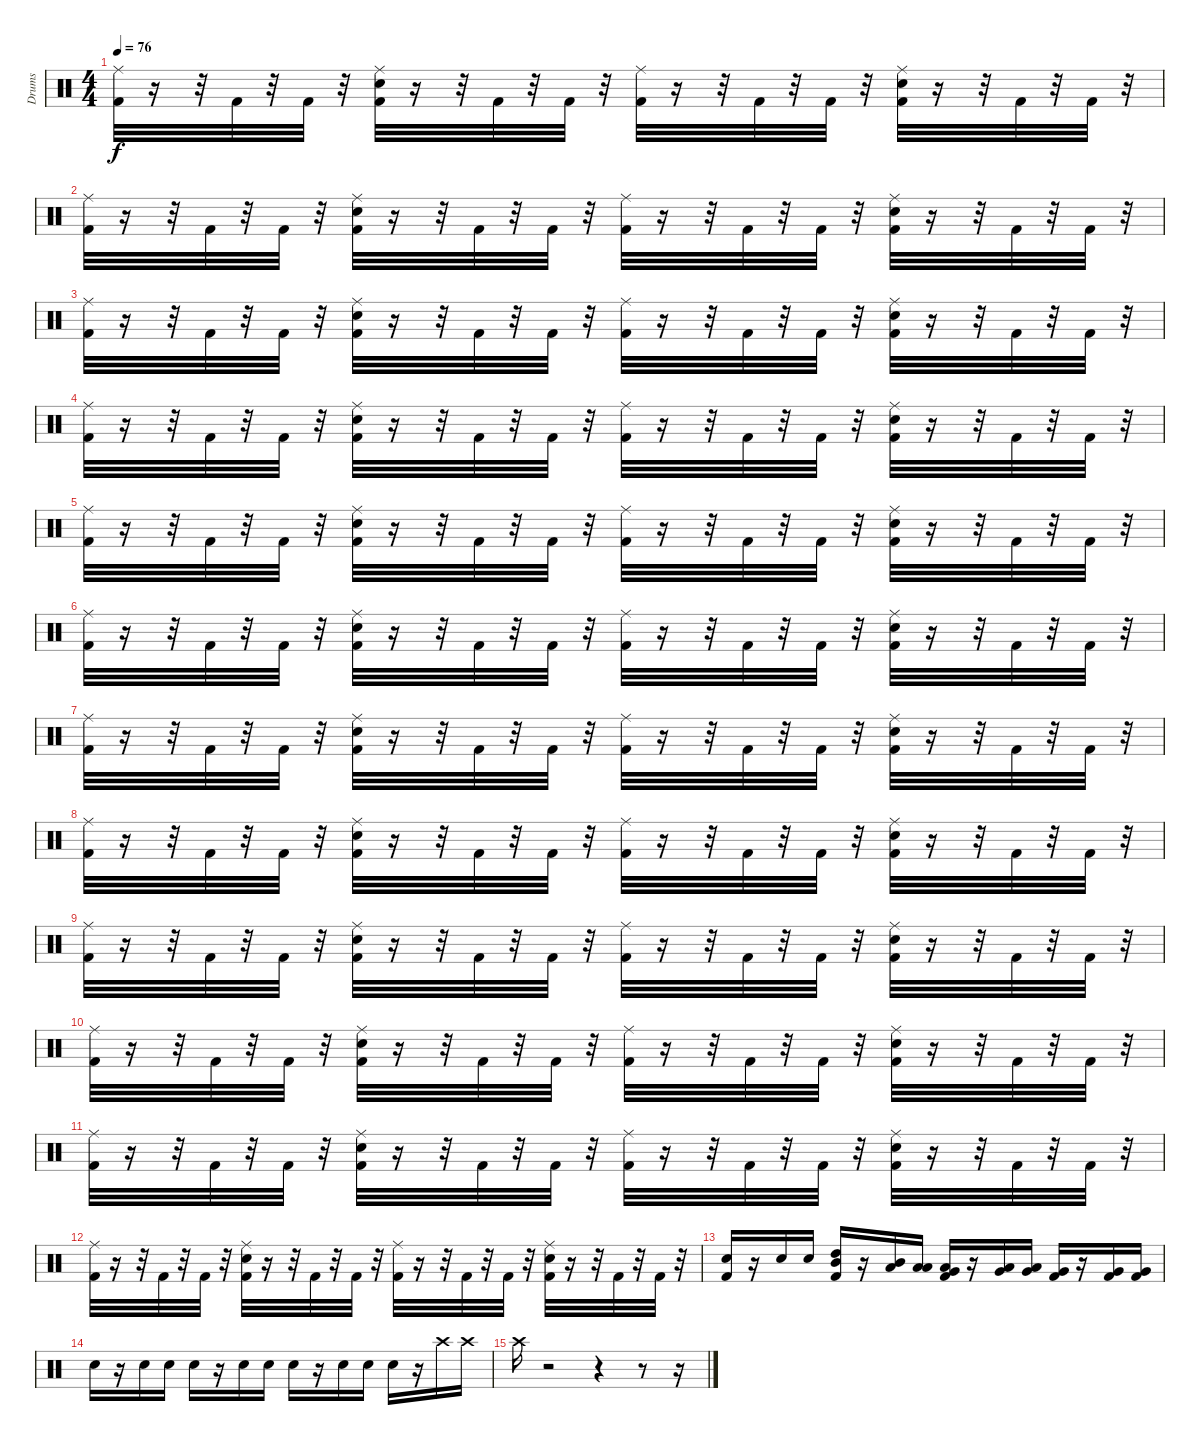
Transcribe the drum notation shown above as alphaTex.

\track ("Drums" "Drums") {instrument percussion}
\staff {score}
\articulation defaults
\ts (4 4)
\tempo 76
\clef neutral
\ks c
("Ride (middle)" "Kick (hit) 2").32{dy f} r.16 r.32 "Kick (hit) 2".32 r.32 "Kick (hit) 2".32 r.32 ("Ride (middle)" "Snare (hit) 2" "Kick (hit) 2").32 r.16 r.32 "Kick (hit) 2".32 r.32 "Kick (hit) 2".32 r.32 ("Ride (middle)" "Kick (hit) 2").32 r.16 r.32 "Kick (hit) 2".32 r.32 "Kick (hit) 2".32 r.32 ("Ride (middle)" "Snare (hit) 2" "Kick (hit) 2").32 r.16 r.32 "Kick (hit) 2".32 r.32 "Kick (hit) 2".32 r.32 |
("Ride (middle)" "Kick (hit) 2").32 r.16 r.32 "Kick (hit) 2".32 r.32 "Kick (hit) 2".32 r.32 ("Ride (middle)" "Snare (hit) 2" "Kick (hit) 2").32 r.16 r.32 "Kick (hit) 2".32 r.32 "Kick (hit) 2".32 r.32 ("Ride (middle)" "Kick (hit) 2").32 r.16 r.32 "Kick (hit) 2".32 r.32 "Kick (hit) 2".32 r.32 ("Ride (middle)" "Snare (hit) 2" "Kick (hit) 2").32 r.16 r.32 "Kick (hit) 2".32 r.32 "Kick (hit) 2".32 r.32 |
("Ride (middle)" "Kick (hit) 2").32 r.16 r.32 "Kick (hit) 2".32 r.32 "Kick (hit) 2".32 r.32 ("Ride (middle)" "Snare (hit) 2" "Kick (hit) 2").32 r.16 r.32 "Kick (hit) 2".32 r.32 "Kick (hit) 2".32 r.32 ("Ride (middle)" "Kick (hit) 2").32 r.16 r.32 "Kick (hit) 2".32 r.32 "Kick (hit) 2".32 r.32 ("Ride (middle)" "Snare (hit) 2" "Kick (hit) 2").32 r.16 r.32 "Kick (hit) 2".32 r.32 "Kick (hit) 2".32 r.32 |
("Ride (middle)" "Kick (hit) 2").32 r.16 r.32 "Kick (hit) 2".32 r.32 "Kick (hit) 2".32 r.32 ("Ride (middle)" "Snare (hit) 2" "Kick (hit) 2").32 r.16 r.32 "Kick (hit) 2".32 r.32 "Kick (hit) 2".32 r.32 ("Ride (middle)" "Kick (hit) 2").32 r.16 r.32 "Kick (hit) 2".32 r.32 "Kick (hit) 2".32 r.32 ("Ride (middle)" "Snare (hit) 2" "Kick (hit) 2").32 r.16 r.32 "Kick (hit) 2".32 r.32 "Kick (hit) 2".32 r.32 |
("Ride (middle)" "Kick (hit) 2").32 r.16 r.32 "Kick (hit) 2".32 r.32 "Kick (hit) 2".32 r.32 ("Ride (middle)" "Snare (hit) 2" "Kick (hit) 2").32 r.16 r.32 "Kick (hit) 2".32 r.32 "Kick (hit) 2".32 r.32 ("Ride (middle)" "Kick (hit) 2").32 r.16 r.32 "Kick (hit) 2".32 r.32 "Kick (hit) 2".32 r.32 ("Ride (middle)" "Snare (hit) 2" "Kick (hit) 2").32 r.16 r.32 "Kick (hit) 2".32 r.32 "Kick (hit) 2".32 r.32 |
("Ride (middle)" "Kick (hit) 2").32 r.16 r.32 "Kick (hit) 2".32 r.32 "Kick (hit) 2".32 r.32 ("Ride (middle)" "Snare (hit) 2" "Kick (hit) 2").32 r.16 r.32 "Kick (hit) 2".32 r.32 "Kick (hit) 2".32 r.32 ("Ride (middle)" "Kick (hit) 2").32 r.16 r.32 "Kick (hit) 2".32 r.32 "Kick (hit) 2".32 r.32 ("Ride (middle)" "Snare (hit) 2" "Kick (hit) 2").32 r.16 r.32 "Kick (hit) 2".32 r.32 "Kick (hit) 2".32 r.32 |
("Ride (middle)" "Kick (hit) 2").32 r.16 r.32 "Kick (hit) 2".32 r.32 "Kick (hit) 2".32 r.32 ("Ride (middle)" "Snare (hit) 2" "Kick (hit) 2").32 r.16 r.32 "Kick (hit) 2".32 r.32 "Kick (hit) 2".32 r.32 ("Ride (middle)" "Kick (hit) 2").32 r.16 r.32 "Kick (hit) 2".32 r.32 "Kick (hit) 2".32 r.32 ("Ride (middle)" "Snare (hit) 2" "Kick (hit) 2").32 r.16 r.32 "Kick (hit) 2".32 r.32 "Kick (hit) 2".32 r.32 |
("Ride (middle)" "Kick (hit) 2").32 r.16 r.32 "Kick (hit) 2".32 r.32 "Kick (hit) 2".32 r.32 ("Ride (middle)" "Snare (hit) 2" "Kick (hit) 2").32 r.16 r.32 "Kick (hit) 2".32 r.32 "Kick (hit) 2".32 r.32 ("Ride (middle)" "Kick (hit) 2").32 r.16 r.32 "Kick (hit) 2".32 r.32 "Kick (hit) 2".32 r.32 ("Ride (middle)" "Snare (hit) 2" "Kick (hit) 2").32 r.16 r.32 "Kick (hit) 2".32 r.32 "Kick (hit) 2".32 r.32 |
("Ride (middle)" "Kick (hit) 2").32 r.16 r.32 "Kick (hit) 2".32 r.32 "Kick (hit) 2".32 r.32 ("Ride (middle)" "Snare (hit) 2" "Kick (hit) 2").32 r.16 r.32 "Kick (hit) 2".32 r.32 "Kick (hit) 2".32 r.32 ("Ride (middle)" "Kick (hit) 2").32 r.16 r.32 "Kick (hit) 2".32 r.32 "Kick (hit) 2".32 r.32 ("Ride (middle)" "Snare (hit) 2" "Kick (hit) 2").32 r.16 r.32 "Kick (hit) 2".32 r.32 "Kick (hit) 2".32 r.32 |
("Ride (middle)" "Kick (hit) 2").32 r.16 r.32 "Kick (hit) 2".32 r.32 "Kick (hit) 2".32 r.32 ("Ride (middle)" "Snare (hit) 2" "Kick (hit) 2").32 r.16 r.32 "Kick (hit) 2".32 r.32 "Kick (hit) 2".32 r.32 ("Ride (middle)" "Kick (hit) 2").32 r.16 r.32 "Kick (hit) 2".32 r.32 "Kick (hit) 2".32 r.32 ("Ride (middle)" "Snare (hit) 2" "Kick (hit) 2").32 r.16 r.32 "Kick (hit) 2".32 r.32 "Kick (hit) 2".32 r.32 |
("Ride (middle)" "Kick (hit) 2").32 r.16 r.32 "Kick (hit) 2".32 r.32 "Kick (hit) 2".32 r.32 ("Ride (middle)" "Snare (hit) 2" "Kick (hit) 2").32 r.16 r.32 "Kick (hit) 2".32 r.32 "Kick (hit) 2".32 r.32 ("Ride (middle)" "Kick (hit) 2").32 r.16 r.32 "Kick (hit) 2".32 r.32 "Kick (hit) 2".32 r.32 ("Ride (middle)" "Snare (hit) 2" "Kick (hit) 2").32 r.16 r.32 "Kick (hit) 2".32 r.32 "Kick (hit) 2".32 r.32 |
("Ride (middle)" "Kick (hit) 2").32 r.16 r.32 "Kick (hit) 2".32 r.32 "Kick (hit) 2".32 r.32 ("Ride (middle)" "Snare (hit) 2" "Kick (hit) 2").32 r.16 r.32 "Kick (hit) 2".32 r.32 "Kick (hit) 2".32 r.32 ("Ride (middle)" "Kick (hit) 2").32 r.16 r.32 "Kick (hit) 2".32 r.32 "Kick (hit) 2".32 r.32 ("Ride (middle)" "Snare (hit) 2" "Kick (hit) 2").32 r.16 r.32 "Kick (hit) 2".32 r.32 "Kick (hit) 2".32 r.32 |
("Kick (hit) 2" "Snare (hit) 2").16 r.16 "Electric Snare (hit)".16 "Snare (hit) 2".16 ("Kick (hit) 2" "Mid Tom (hit)" "High Tom (hit)").16 r.16 ("Low Tom (hit)" "Mid Tom (hit)").16 ("Low Floor Tom (hit)" "Low Tom (hit)").16 ("Kick (hit) 2" "Low Floor Tom (hit)" "Very Low Tom (hit)").16 r.16 ("Low Floor Tom (hit)" "Very Low Tom (hit)").16 ("Low Floor Tom (hit)" "Very Low Tom (hit)").16 ("Very Low Tom (hit)" "Kick (hit) 2").16 r.16 ("Very Low Tom (hit)" "Kick (hit) 2").16 ("Very Low Tom (hit)" "Kick (hit) 2").16 |
"Snare (hit) 2".16 r.16 "Snare (hit) 2".16 "Snare (hit) 2".16 "Snare (hit) 2".16 r.16 "Snare (hit) 2".16 "Snare (hit) 2".16 "Snare (hit) 2".16 r.16 "Snare (hit) 2".16 "Snare (hit) 2".16 "Snare (hit) 2".16 r.16 "Crash high (hit)".16 "Crash high (hit)".16 |
"Crash high (hit)".16 r.2 r.4 r.8 r.16
